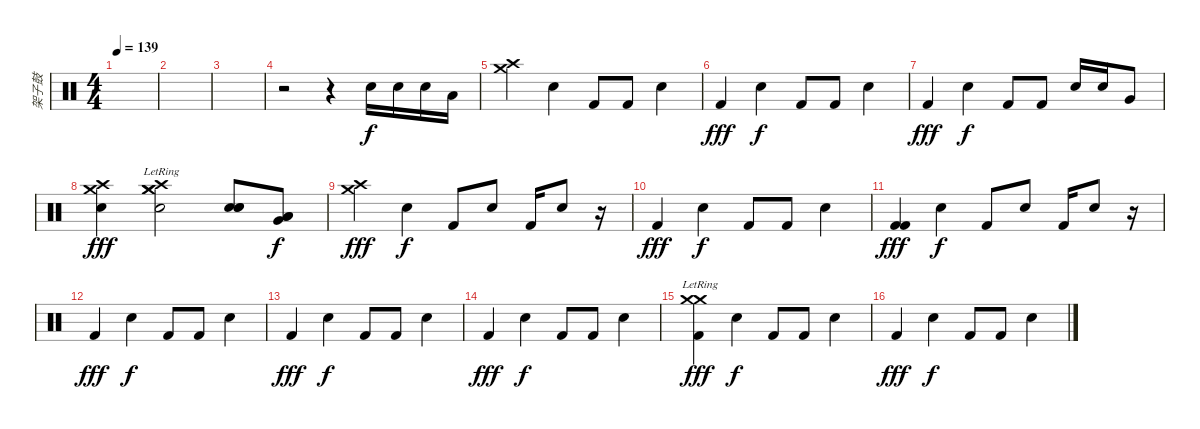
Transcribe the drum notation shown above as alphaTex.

\track ("架子鼓" "架子鼓") {instrument percussion}
\staff {score}
\articulation defaults
\ts (4 4)
\tempo 139
\clef neutral
\ks c
|
|
|
r.2 r.4 "Electric Snare (hit)".16 "Electric Snare (hit)".16 "Electric Snare (hit)".16 "Low Tom (hit)".16 |
("Crash medium (hit)" "Crash high (hit)").4 "Electric Snare (hit)".4{dy f} "Kick (hit) 2".8 "Kick (hit) 2".8 "Electric Snare (hit)".4 |
"Kick (hit) 2".4{dy fff} "Electric Snare (hit)".4{dy f} "Kick (hit) 2".8 "Kick (hit) 2".8 "Electric Snare (hit)".4 |
"Kick (hit) 2".4{dy fff} "Electric Snare (hit)".4{dy f} "Kick (hit) 2".8 "Kick (hit) 2".8 "Electric Snare (hit)".16 "Electric Snare (hit)".16 "Very Low Tom (hit)".8 |
("Crash high (hit)" "Crash medium (hit)" "Electric Snare (hit)").4{dy fff} ("Crash high (hit)"{lr} "Crash medium (hit)"{lr} "Crash medium (hit)"{lr} "Electric Snare (hit)").2 ("Electric Snare (hit)" "Electric Snare (hit)" "Electric Snare (hit)").8 ("Very Low Tom (hit)" "Low Tom (hit)" "Low Tom (hit)").8{dy f} |
("Crash high (hit)" "Crash medium (hit)").4{dy fff} "Electric Snare (hit)".4{dy f} "Kick (hit) 2".8 "Electric Snare (hit)".8 "Kick (hit) 2".16 "Electric Snare (hit)".8 r.16 |
"Kick (hit) 2".4{dy fff} "Electric Snare (hit)".4{dy f} "Kick (hit) 2".8 "Kick (hit) 2".8 "Electric Snare (hit)".4 |
("Kick (hit) 2" "Kick (hit) 2").4{dy fff} "Electric Snare (hit)".4{dy f} "Kick (hit) 2".8 "Electric Snare (hit)".8 "Kick (hit) 2".16 "Electric Snare (hit)".8 r.16 |
"Kick (hit) 2".4{dy fff} "Electric Snare (hit)".4{dy f} "Kick (hit) 2".8 "Kick (hit) 2".8 "Electric Snare (hit)".4 |
"Kick (hit) 2".4{dy fff} "Electric Snare (hit)".4{dy f} "Kick (hit) 2".8 "Kick (hit) 2".8 "Electric Snare (hit)".4 |
"Kick (hit) 2".4{dy fff} "Electric Snare (hit)".4{dy f} "Kick (hit) 2".8 "Kick (hit) 2".8 "Electric Snare (hit)".4 |
("Kick (hit) 2" "Crash medium (hit)"{lr} "Crash medium (hit)"{lr}).4{dy fff} "Electric Snare (hit)".4{dy f} "Kick (hit) 2".8 "Kick (hit) 2".8 "Electric Snare (hit)".4 |
"Kick (hit) 2".4{dy fff} "Electric Snare (hit)".4{dy f} "Kick (hit) 2".8 "Kick (hit) 2".8 "Electric Snare (hit)".4
